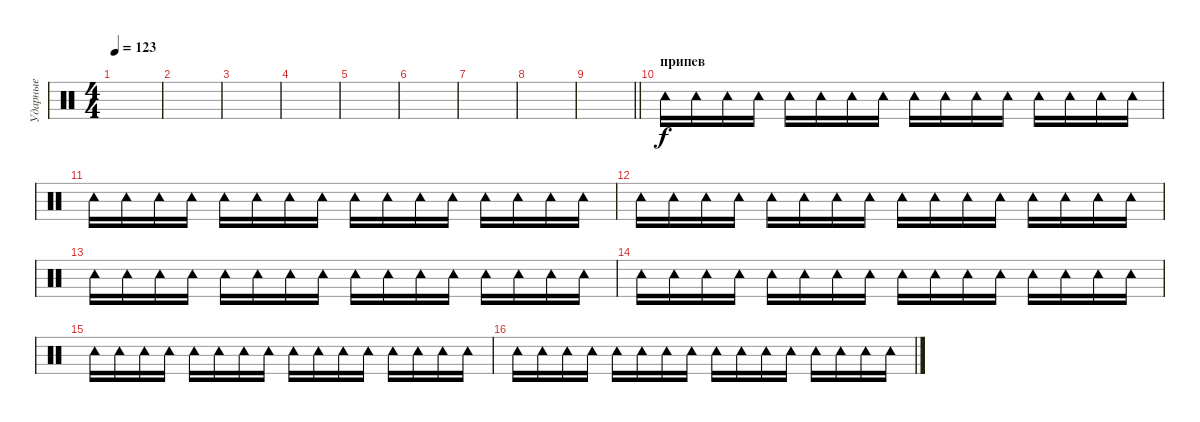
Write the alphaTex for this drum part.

\track ("Ударные" "Ударные") {instrument percussion}
\staff {score}
\articulation defaults
\ts (4 4)
\tempo 123
\clef neutral
\ks c
|
|
|
|
|
|
|
|
\barLineRight lightlight
|
\section ("" "припев")
"Tambourine (hit)".16 "Tambourine (hit)".16 "Tambourine (hit)".16 "Tambourine (hit)".16 "Tambourine (hit)".16 "Tambourine (hit)".16 "Tambourine (hit)".16 "Tambourine (hit)".16 "Tambourine (hit)".16 "Tambourine (hit)".16 "Tambourine (hit)".16 "Tambourine (hit)".16 "Tambourine (hit)".16 "Tambourine (hit)".16 "Tambourine (hit)".16 "Tambourine (hit)".16 |
"Tambourine (hit)".16 "Tambourine (hit)".16 "Tambourine (hit)".16 "Tambourine (hit)".16 "Tambourine (hit)".16 "Tambourine (hit)".16 "Tambourine (hit)".16 "Tambourine (hit)".16 "Tambourine (hit)".16 "Tambourine (hit)".16 "Tambourine (hit)".16 "Tambourine (hit)".16 "Tambourine (hit)".16 "Tambourine (hit)".16 "Tambourine (hit)".16 "Tambourine (hit)".16 |
"Tambourine (hit)".16 "Tambourine (hit)".16 "Tambourine (hit)".16 "Tambourine (hit)".16 "Tambourine (hit)".16 "Tambourine (hit)".16 "Tambourine (hit)".16 "Tambourine (hit)".16 "Tambourine (hit)".16 "Tambourine (hit)".16 "Tambourine (hit)".16 "Tambourine (hit)".16 "Tambourine (hit)".16 "Tambourine (hit)".16 "Tambourine (hit)".16 "Tambourine (hit)".16 |
"Tambourine (hit)".16 "Tambourine (hit)".16 "Tambourine (hit)".16 "Tambourine (hit)".16 "Tambourine (hit)".16 "Tambourine (hit)".16 "Tambourine (hit)".16 "Tambourine (hit)".16 "Tambourine (hit)".16 "Tambourine (hit)".16 "Tambourine (hit)".16 "Tambourine (hit)".16 "Tambourine (hit)".16 "Tambourine (hit)".16 "Tambourine (hit)".16 "Tambourine (hit)".16 |
"Tambourine (hit)".16 "Tambourine (hit)".16 "Tambourine (hit)".16 "Tambourine (hit)".16 "Tambourine (hit)".16 "Tambourine (hit)".16 "Tambourine (hit)".16 "Tambourine (hit)".16 "Tambourine (hit)".16 "Tambourine (hit)".16 "Tambourine (hit)".16 "Tambourine (hit)".16 "Tambourine (hit)".16 "Tambourine (hit)".16 "Tambourine (hit)".16 "Tambourine (hit)".16 |
"Tambourine (hit)".16 "Tambourine (hit)".16 "Tambourine (hit)".16 "Tambourine (hit)".16 "Tambourine (hit)".16 "Tambourine (hit)".16 "Tambourine (hit)".16 "Tambourine (hit)".16 "Tambourine (hit)".16 "Tambourine (hit)".16 "Tambourine (hit)".16 "Tambourine (hit)".16 "Tambourine (hit)".16 "Tambourine (hit)".16 "Tambourine (hit)".16 "Tambourine (hit)".16 |
"Tambourine (hit)".16 "Tambourine (hit)".16 "Tambourine (hit)".16 "Tambourine (hit)".16 "Tambourine (hit)".16 "Tambourine (hit)".16 "Tambourine (hit)".16 "Tambourine (hit)".16 "Tambourine (hit)".16 "Tambourine (hit)".16 "Tambourine (hit)".16 "Tambourine (hit)".16 "Tambourine (hit)".16 "Tambourine (hit)".16 "Tambourine (hit)".16 "Tambourine (hit)".16
